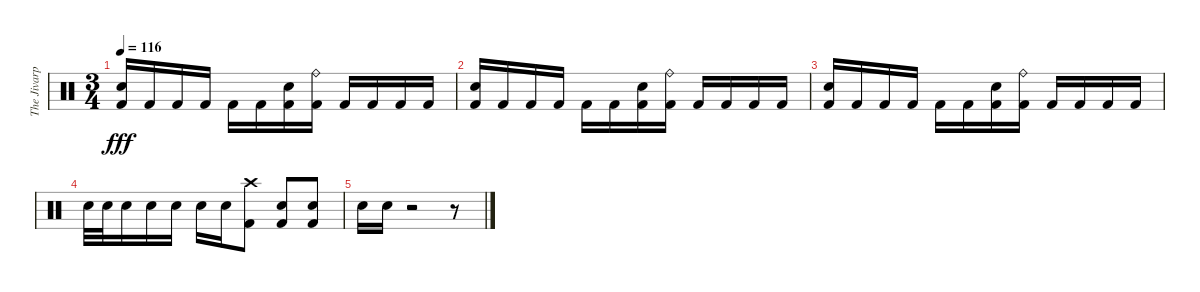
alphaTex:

\track ("The Jivarp" "The Jivarp") {instrument percussion}
\staff {score}
\articulation defaults
\ts (3 4)
\tempo 116
\clef neutral
\ks c
("Electric Snare (hit)" "Kick (hit) 2").16{dy fff} "Kick (hit) 2".16 "Kick (hit) 2".16 "Kick (hit) 2".16 "Kick (hit) 2".16 "Kick (hit) 2".16 ("Electric Snare (hit)" "Kick (hit) 2").16 ("Ride (bell)" "Kick (hit) 2").16 "Kick (hit) 2".16 "Kick (hit) 2".16 "Kick (hit) 2".16 "Kick (hit) 2".16 |
("Electric Snare (hit)" "Kick (hit) 2").16 "Kick (hit) 2".16 "Kick (hit) 2".16 "Kick (hit) 2".16 "Kick (hit) 2".16 "Kick (hit) 2".16 ("Electric Snare (hit)" "Kick (hit) 2").16 ("Ride (bell)" "Kick (hit) 2").16 "Kick (hit) 2".16 "Kick (hit) 2".16 "Kick (hit) 2".16 "Kick (hit) 2".16 |
("Electric Snare (hit)" "Kick (hit) 2").16 "Kick (hit) 2".16 "Kick (hit) 2".16 "Kick (hit) 2".16 "Kick (hit) 2".16 "Kick (hit) 2".16 ("Electric Snare (hit)" "Kick (hit) 2").16 ("Ride (bell)" "Kick (hit) 2").16 "Kick (hit) 2".16 "Kick (hit) 2".16 "Kick (hit) 2".16 "Kick (hit) 2".16 |
"Electric Snare (hit)".32 "Electric Snare (hit)".32 "Electric Snare (hit)".16 "Electric Snare (hit)".16 "Electric Snare (hit)".16 "Electric Snare (hit)".16 "Electric Snare (hit)".16 ("Crash high (hit)" "Kick (hit) 2").8 ("Electric Snare (hit)" "Kick (hit) 2").8 ("Electric Snare (hit)" "Kick (hit) 2").8 |
"Electric Snare (hit)".16 "Electric Snare (hit)".16 r.2 r.8
